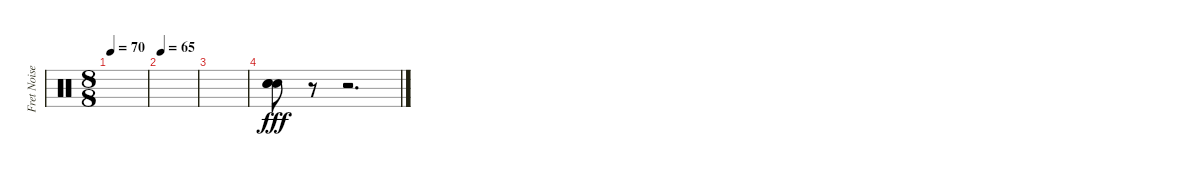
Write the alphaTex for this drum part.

\track ("Fret Noise / Percussion(corpus)" "Fret Noise") {instrument percussion}
\staff {score}
\articulation defaults
\ts (8 8)
\tempo 70
\clef neutral
\ks c
|
\tempo 65
|
|
("Snare (hit) 2" "Snare (hit) 2" "Snare (hit) 2").8{dy fff} r.8 r.2{d}
